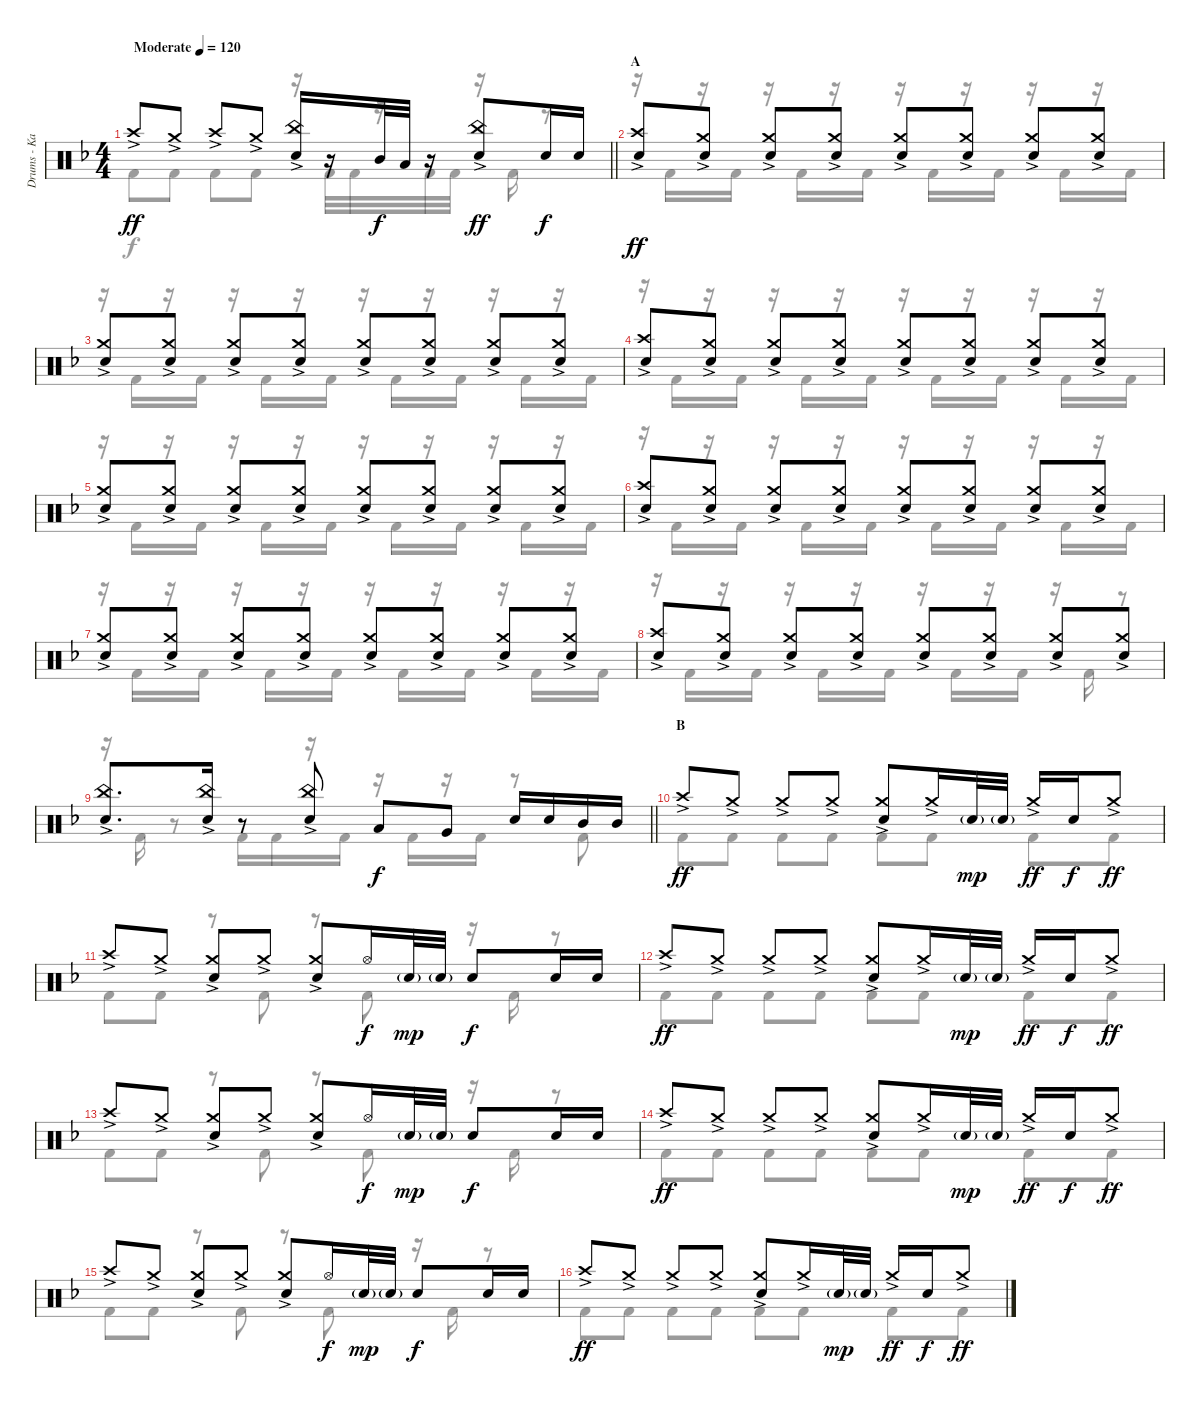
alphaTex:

\track ("Drums - Kai" "Drums - Ka") {instrument percussion}
\staff {score}
\articulation defaults
\voice
\ts (4 4)
\tempo (120 "Moderate")
\clef neutral
\barLineRight lightlight
\ks f "Crash high (hit)"{ac}.8{dy ff} "Crash medium (hit)"{ac}.8 "Crash high (hit)"{ac}.8 "Crash medium (hit)"{ac}.8
("China (hit)"{ac} "Snare (hit) 2").16 r.16 "Mid Tom (hit)".32{dy f} "Low Tom (hit)".32 r.16 ("China (hit)"{ac} "Snare (hit) 2").8{dy ff} "Snare (hit) 2".16{dy f} "Snare (hit) 2".16 |
\section ("" "A")
("Crash high (hit)"{ac} "Snare (hit) 2").8{dy ff} ("Crash medium (hit)"{ac} "Snare (hit) 2").8 ("Crash medium (hit)"{ac} "Snare (hit) 2").8 ("Crash medium (hit)"{ac} "Snare (hit) 2").8 ("Crash medium (hit)"{ac} "Snare (hit) 2").8 ("Crash medium (hit)"{ac} "Snare (hit) 2").8 ("Crash medium (hit)"{ac} "Snare (hit) 2").8 ("Crash medium (hit)"{ac} "Snare (hit) 2").8 |
("Crash medium (hit)"{ac} "Snare (hit) 2").8 ("Crash medium (hit)"{ac} "Snare (hit) 2").8 ("Crash medium (hit)"{ac} "Snare (hit) 2").8 ("Crash medium (hit)"{ac} "Snare (hit) 2").8 ("Crash medium (hit)"{ac} "Snare (hit) 2").8 ("Crash medium (hit)"{ac} "Snare (hit) 2").8 ("Crash medium (hit)"{ac} "Snare (hit) 2").8 ("Crash medium (hit)"{ac} "Snare (hit) 2").8 |
("Crash high (hit)"{ac} "Snare (hit) 2").8 ("Crash medium (hit)"{ac} "Snare (hit) 2").8 ("Crash medium (hit)"{ac} "Snare (hit) 2").8 ("Crash medium (hit)"{ac} "Snare (hit) 2").8 ("Crash medium (hit)"{ac} "Snare (hit) 2").8 ("Crash medium (hit)"{ac} "Snare (hit) 2").8 ("Crash medium (hit)"{ac} "Snare (hit) 2").8 ("Crash medium (hit)"{ac} "Snare (hit) 2").8 |
("Crash medium (hit)"{ac} "Snare (hit) 2").8 ("Crash medium (hit)"{ac} "Snare (hit) 2").8 ("Crash medium (hit)"{ac} "Snare (hit) 2").8 ("Crash medium (hit)"{ac} "Snare (hit) 2").8 ("Crash medium (hit)"{ac} "Snare (hit) 2").8 ("Crash medium (hit)"{ac} "Snare (hit) 2").8 ("Crash medium (hit)"{ac} "Snare (hit) 2").8 ("Crash medium (hit)"{ac} "Snare (hit) 2").8 |
("Crash high (hit)"{ac} "Snare (hit) 2").8 ("Crash medium (hit)"{ac} "Snare (hit) 2").8 ("Crash medium (hit)"{ac} "Snare (hit) 2").8 ("Crash medium (hit)"{ac} "Snare (hit) 2").8 ("Crash medium (hit)"{ac} "Snare (hit) 2").8 ("Crash medium (hit)"{ac} "Snare (hit) 2").8 ("Crash medium (hit)"{ac} "Snare (hit) 2").8 ("Crash medium (hit)"{ac} "Snare (hit) 2").8 |
("Crash medium (hit)"{ac} "Snare (hit) 2").8 ("Crash medium (hit)"{ac} "Snare (hit) 2").8 ("Crash medium (hit)"{ac} "Snare (hit) 2").8 ("Crash medium (hit)"{ac} "Snare (hit) 2").8 ("Crash medium (hit)"{ac} "Snare (hit) 2").8 ("Crash medium (hit)"{ac} "Snare (hit) 2").8 ("Crash medium (hit)"{ac} "Snare (hit) 2").8 ("Crash medium (hit)"{ac} "Snare (hit) 2").8 |
("Crash high (hit)"{ac} "Snare (hit) 2").8 ("Crash medium (hit)"{ac} "Snare (hit) 2").8 ("Crash medium (hit)"{ac} "Snare (hit) 2").8 ("Crash medium (hit)"{ac} "Snare (hit) 2").8 ("Crash medium (hit)"{ac} "Snare (hit) 2").8 ("Crash medium (hit)"{ac} "Snare (hit) 2").8 ("Crash medium (hit)"{ac} "Snare (hit) 2").8 ("Crash medium (hit)"{ac} "Snare (hit) 2").8 |
\barLineRight lightlight
("China (hit)"{ac} "Snare (hit) 2").8{d} ("China (hit)"{ac} "Snare (hit) 2").16 r.8 ("China (hit)"{ac} "Snare (hit) 2").8 "Low Tom (hit)".8{dy f} "Very Low Tom (hit)".8 "Snare (hit) 2".16 "Snare (hit) 2".16 "Mid Tom (hit)".16 "Mid Tom (hit)".16 |
\section ("" "B")
"Crash high (hit)"{ac}.8{dy ff} "Crash medium (hit)"{ac}.8 "Crash medium (hit)"{ac}.8 "Crash medium (hit)"{ac}.8 ("Crash medium (hit)"{ac} "Snare (hit) 2").8 "Crash medium (hit)"{ac}.16 "Snare (hit) 2"{g}.32{dy mp} "Snare (hit) 2"{g}.32 "Crash medium (hit)"{ac}.16{dy ff} "Snare (hit) 2".16{dy f} "Crash medium (hit)"{ac}.8{dy ff} |
"Crash high (hit)"{ac}.8 "Crash medium (hit)"{ac}.8 ("Crash medium (hit)"{ac} "Snare (hit) 2").8 "Crash medium (hit)"{ac}.8 ("Crash medium (hit)"{ac} "Snare (hit) 2").8 "Hi-Hat (open)".16{dy f} "Snare (hit) 2"{g}.32{dy mp} "Snare (hit) 2"{g}.32 "Snare (hit) 2".8{dy f} "Snare (hit) 2".16 "Snare (hit) 2".16 |
"Crash high (hit)"{ac}.8{dy ff} "Crash medium (hit)"{ac}.8 "Crash medium (hit)"{ac}.8 "Crash medium (hit)"{ac}.8 ("Crash medium (hit)"{ac} "Snare (hit) 2").8 "Crash medium (hit)"{ac}.16 "Snare (hit) 2"{g}.32{dy mp} "Snare (hit) 2"{g}.32 "Crash medium (hit)"{ac}.16{dy ff} "Snare (hit) 2".16{dy f} "Crash medium (hit)"{ac}.8{dy ff} |
"Crash high (hit)"{ac}.8 "Crash medium (hit)"{ac}.8 ("Crash medium (hit)"{ac} "Snare (hit) 2").8 "Crash medium (hit)"{ac}.8 ("Crash medium (hit)"{ac} "Snare (hit) 2").8 "Hi-Hat (open)".16{dy f} "Snare (hit) 2"{g}.32{dy mp} "Snare (hit) 2"{g}.32 "Snare (hit) 2".8{dy f} "Snare (hit) 2".16 "Snare (hit) 2".16 |
"Crash high (hit)"{ac}.8{dy ff} "Crash medium (hit)"{ac}.8 "Crash medium (hit)"{ac}.8 "Crash medium (hit)"{ac}.8 ("Crash medium (hit)"{ac} "Snare (hit) 2").8 "Crash medium (hit)"{ac}.16 "Snare (hit) 2"{g}.32{dy mp} "Snare (hit) 2"{g}.32 "Crash medium (hit)"{ac}.16{dy ff} "Snare (hit) 2".16{dy f} "Crash medium (hit)"{ac}.8{dy ff} |
"Crash high (hit)"{ac}.8 "Crash medium (hit)"{ac}.8 ("Crash medium (hit)"{ac} "Snare (hit) 2").8 "Crash medium (hit)"{ac}.8 ("Crash medium (hit)"{ac} "Snare (hit) 2").8 "Hi-Hat (open)".16{dy f} "Snare (hit) 2"{g}.32{dy mp} "Snare (hit) 2"{g}.32 "Snare (hit) 2".8{dy f} "Snare (hit) 2".16 "Snare (hit) 2".16 |
"Crash high (hit)"{ac}.8{dy ff} "Crash medium (hit)"{ac}.8 "Crash medium (hit)"{ac}.8 "Crash medium (hit)"{ac}.8 ("Crash medium (hit)"{ac} "Snare (hit) 2").8 "Crash medium (hit)"{ac}.16 "Snare (hit) 2"{g}.32{dy mp} "Snare (hit) 2"{g}.32 "Crash medium (hit)"{ac}.16{dy ff} "Snare (hit) 2".16{dy f} "Crash medium (hit)"{ac}.8{dy ff}
\voice
\clef neutral
\ottava regular
\simile none
\barLineRight lightlight
\ks f "Kick (hit) 2".8{dy f} "Kick (hit) 2".8 "Kick (hit) 2".8 "Kick (hit) 2".8
r.16 "Kick (hit) 2".32 "Kick (hit) 2".32 r.16 "Kick (hit) 2".32 "Kick (hit) 2".32 r.16 "Kick (hit) 2".16 r.8 |
r.16 "Kick (hit) 2".16 r.16 "Kick (hit) 2".16 r.16 "Kick (hit) 2".16 r.16 "Kick (hit) 2".16 r.16 "Kick (hit) 2".16 r.16 "Kick (hit) 2".16 r.16 "Kick (hit) 2".16 r.16 "Kick (hit) 2".16 |
r.16 "Kick (hit) 2".16 r.16 "Kick (hit) 2".16 r.16 "Kick (hit) 2".16 r.16 "Kick (hit) 2".16 r.16 "Kick (hit) 2".16 r.16 "Kick (hit) 2".16 r.16 "Kick (hit) 2".16 r.16 "Kick (hit) 2".16 |
r.16 "Kick (hit) 2".16 r.16 "Kick (hit) 2".16 r.16 "Kick (hit) 2".16 r.16 "Kick (hit) 2".16 r.16 "Kick (hit) 2".16 r.16 "Kick (hit) 2".16 r.16 "Kick (hit) 2".16 r.16 "Kick (hit) 2".16 |
r.16 "Kick (hit) 2".16 r.16 "Kick (hit) 2".16 r.16 "Kick (hit) 2".16 r.16 "Kick (hit) 2".16 r.16 "Kick (hit) 2".16 r.16 "Kick (hit) 2".16 r.16 "Kick (hit) 2".16 r.16 "Kick (hit) 2".16 |
r.16 "Kick (hit) 2".16 r.16 "Kick (hit) 2".16 r.16 "Kick (hit) 2".16 r.16 "Kick (hit) 2".16 r.16 "Kick (hit) 2".16 r.16 "Kick (hit) 2".16 r.16 "Kick (hit) 2".16 r.16 "Kick (hit) 2".16 |
r.16 "Kick (hit) 2".16 r.16 "Kick (hit) 2".16 r.16 "Kick (hit) 2".16 r.16 "Kick (hit) 2".16 r.16 "Kick (hit) 2".16 r.16 "Kick (hit) 2".16 r.16 "Kick (hit) 2".16 r.16 "Kick (hit) 2".16 |
r.16 "Kick (hit) 2".16 r.16 "Kick (hit) 2".16 r.16 "Kick (hit) 2".16 r.16 "Kick (hit) 2".16 r.16 "Kick (hit) 2".16 r.16 "Kick (hit) 2".16 r.16 "Kick (hit) 2".16 r.8 |
\barLineRight lightlight
r.16 "Kick (hit) 2".16 r.8 "Kick (hit) 2".16 "Kick (hit) 2".16 r.16 "Kick (hit) 2".16 r.16 "Kick (hit) 2".16 r.16 "Kick (hit) 2".16 r.8 "Kick (hit) 2".8 |
"Kick (hit) 2".8 "Kick (hit) 2".8 "Kick (hit) 2".8 "Kick (hit) 2".8 "Kick (hit) 2".8 "Kick (hit) 2".8 "Kick (hit) 2".8 "Kick (hit) 2".8 |
"Kick (hit) 2".8 "Kick (hit) 2".8 r.8 "Kick (hit) 2".8 r.8 "Kick (hit) 2".8 r.16 "Kick (hit) 2".16 r.8 |
"Kick (hit) 2".8 "Kick (hit) 2".8 "Kick (hit) 2".8 "Kick (hit) 2".8 "Kick (hit) 2".8 "Kick (hit) 2".8 "Kick (hit) 2".8 "Kick (hit) 2".8 |
"Kick (hit) 2".8 "Kick (hit) 2".8 r.8 "Kick (hit) 2".8 r.8 "Kick (hit) 2".8 r.16 "Kick (hit) 2".16 r.8 |
"Kick (hit) 2".8 "Kick (hit) 2".8 "Kick (hit) 2".8 "Kick (hit) 2".8 "Kick (hit) 2".8 "Kick (hit) 2".8 "Kick (hit) 2".8 "Kick (hit) 2".8 |
"Kick (hit) 2".8 "Kick (hit) 2".8 r.8 "Kick (hit) 2".8 r.8 "Kick (hit) 2".8 r.16 "Kick (hit) 2".16 r.8 |
"Kick (hit) 2".8 "Kick (hit) 2".8 "Kick (hit) 2".8 "Kick (hit) 2".8 "Kick (hit) 2".8 "Kick (hit) 2".8 "Kick (hit) 2".8 "Kick (hit) 2".8
